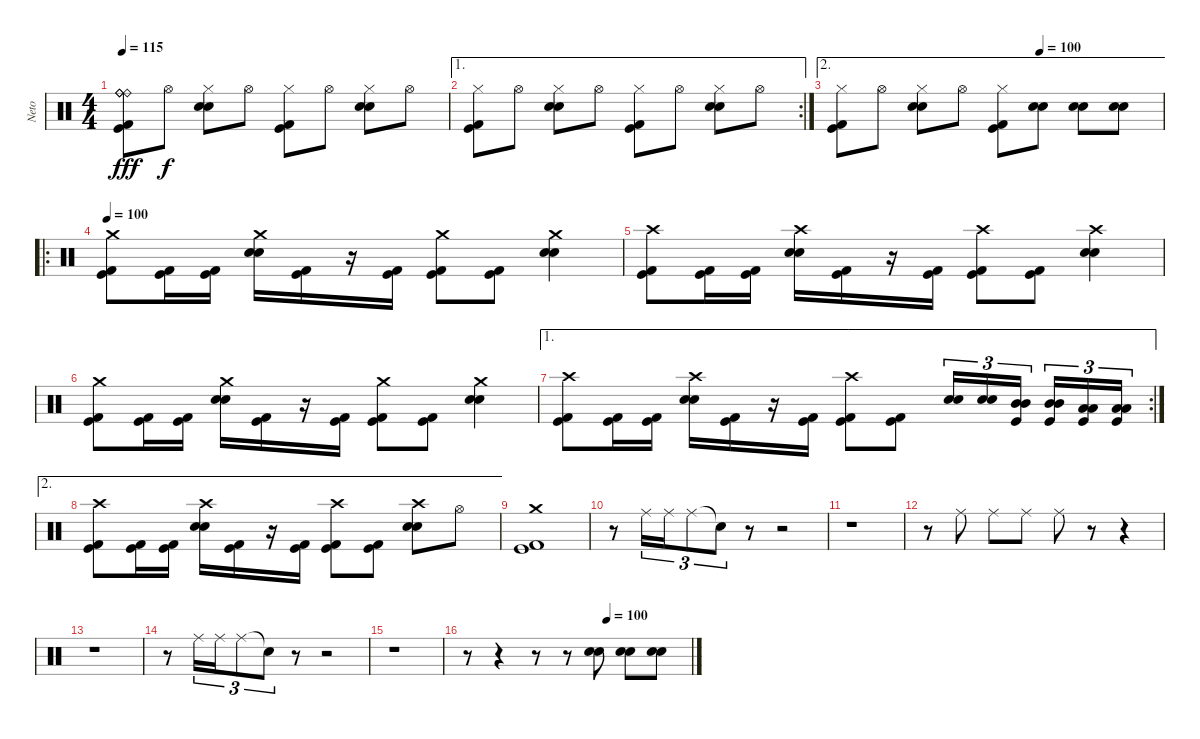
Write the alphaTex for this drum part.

\track ("Neto" "Neto") {instrument percussion}
\staff {score}
\articulation defaults
\ts (4 4)
\tempo 115
\clef neutral
\ks c
("Ride (bell)" "Ride (bell)" "Ride (bell)" "Kick (hit)" "Kick (hit) 2").8{dy fff} "Hi-Hat (open)".8{dy f} ("Hi-Hat (closed)" "Snare (hit) 2" "Snare (hit) 2").8 "Hi-Hat (open)".8 ("Hi-Hat (closed)" "Kick (hit)" "Kick (hit) 2").8 "Hi-Hat (open)".8 ("Hi-Hat (closed)" "Snare (hit) 2" "Snare (hit) 2").8 "Hi-Hat (open)".8 |
\ae 1
\rc 2
("Hi-Hat (closed)" "Kick (hit)" "Kick (hit) 2").8 "Hi-Hat (open)".8 ("Hi-Hat (closed)" "Snare (hit) 2" "Snare (hit) 2").8 "Hi-Hat (open)".8 ("Hi-Hat (closed)" "Kick (hit)" "Kick (hit) 2").8 "Hi-Hat (open)".8 ("Hi-Hat (closed)" "Snare (hit) 2" "Snare (hit) 2").8 "Hi-Hat (open)".8 |
\ae 2
\tempo (100 0.625)
("Hi-Hat (closed)" "Kick (hit)" "Kick (hit) 2").8 "Hi-Hat (open)".8 ("Hi-Hat (closed)" "Snare (hit) 2" "Snare (hit) 2").8 "Hi-Hat (open)".8 ("Hi-Hat (closed)" "Kick (hit)" "Kick (hit) 2").8 ("Snare (hit) 2" "Snare (hit) 2").8 ("Snare (hit) 2" "Snare (hit) 2").8 ("Snare (hit) 2" "Snare (hit) 2").8 |
\ro
\tempo 100
("Crash medium (hit)" "Kick (hit)" "Kick (hit) 2").8 ("Kick (hit)" "Kick (hit) 2").16 ("Kick (hit)" "Kick (hit) 2").16 ("Crash medium (hit)" "Snare (hit) 2" "Snare (hit) 2").16 ("Kick (hit)" "Kick (hit) 2").16 r.16 ("Kick (hit)" "Kick (hit) 2").16 ("Crash medium (hit)" "Kick (hit)" "Kick (hit) 2").8 ("Kick (hit)" "Kick (hit) 2").8 ("Crash medium (hit)" "Snare (hit) 2" "Snare (hit) 2").4 |
("Crash high (hit)" "Kick (hit)" "Kick (hit) 2").8 ("Kick (hit)" "Kick (hit) 2").16 ("Kick (hit)" "Kick (hit) 2").16 ("Crash high (hit)" "Snare (hit) 2" "Snare (hit) 2").16 ("Kick (hit)" "Kick (hit) 2").16 r.16 ("Kick (hit)" "Kick (hit) 2").16 ("Crash high (hit)" "Kick (hit)" "Kick (hit) 2").8 ("Kick (hit)" "Kick (hit) 2").8 ("Crash high (hit)" "Snare (hit) 2" "Snare (hit) 2").4 |
("Crash medium (hit)" "Kick (hit)" "Kick (hit) 2").8 ("Kick (hit)" "Kick (hit) 2").16 ("Kick (hit)" "Kick (hit) 2").16 ("Crash medium (hit)" "Snare (hit) 2" "Snare (hit) 2").16 ("Kick (hit)" "Kick (hit) 2").16 r.16 ("Kick (hit)" "Kick (hit) 2").16 ("Crash medium (hit)" "Kick (hit)" "Kick (hit) 2").8 ("Kick (hit)" "Kick (hit) 2").8 ("Crash medium (hit)" "Snare (hit) 2" "Snare (hit) 2").4 |
\ae 1
\rc 2
("Crash high (hit)" "Kick (hit)" "Kick (hit) 2").8 ("Kick (hit)" "Kick (hit) 2").16 ("Kick (hit)" "Kick (hit) 2").16 ("Crash high (hit)" "Snare (hit) 2" "Snare (hit) 2").16 ("Kick (hit)" "Kick (hit) 2").16 r.16 ("Kick (hit)" "Kick (hit) 2").16 ("Crash high (hit)" "Kick (hit)" "Kick (hit) 2").8 ("Kick (hit)" "Kick (hit) 2").8 ("Snare (hit) 2" "Snare (hit) 2").16{tu (3 2)} ("Snare (hit) 2" "Snare (hit) 2").16{tu (3 2)} ("Mid Tom (hit)" "Mid Tom (hit)" "Kick (hit)").16{tu (3 2)} ("Mid Tom (hit)" "Mid Tom (hit)" "Kick (hit)").16{tu (3 2)} ("Low Tom (hit)" "Low Tom (hit)" "Kick (hit)").16{tu (3 2)} ("Low Tom (hit)" "Low Tom (hit)" "Kick (hit)").16{tu (3 2)} |
\ae 2
("Crash high (hit)" "Kick (hit)" "Kick (hit) 2").8 ("Kick (hit)" "Kick (hit) 2").16 ("Kick (hit)" "Kick (hit) 2").16 ("Crash high (hit)" "Snare (hit) 2" "Snare (hit) 2").16 ("Kick (hit)" "Kick (hit) 2").16 r.16 ("Kick (hit)" "Kick (hit) 2").16 ("Crash high (hit)" "Kick (hit)" "Kick (hit) 2").8 ("Kick (hit)" "Kick (hit) 2").8 ("Crash high (hit)" "Snare (hit) 2" "Snare (hit) 2").8 "Hi-Hat (open)".8 |
("Crash medium (hit)" "Kick (hit)" "Kick (hit) 2").1 |
r.8 "Ride (middle)".16{tu (3 2)} "Ride (middle)".16{tu (3 2)} "Ride (middle)".8{tu (3 2)} "Snare (hit)"{t}.8{tu (3 2)} r.8 r.2 |
r.1 |
r.8 "Ride (middle)".8 "Ride (middle)".8 "Ride (middle)".8 "Ride (middle)".8 r.8 r.4 |
r.1 |
r.8 "Ride (middle)".16{tu (3 2)} "Ride (middle)".16{tu (3 2)} "Ride (middle)".8{tu (3 2)} "Snare (hit)"{t}.8{tu (3 2)} r.8 r.2 |
r.1 |
\tempo (100 0.625)
r.8 r.4 r.8 r.8 ("Snare (hit) 2" "Snare (hit) 2").8 ("Snare (hit) 2" "Snare (hit) 2").8 ("Snare (hit) 2" "Snare (hit) 2").8
